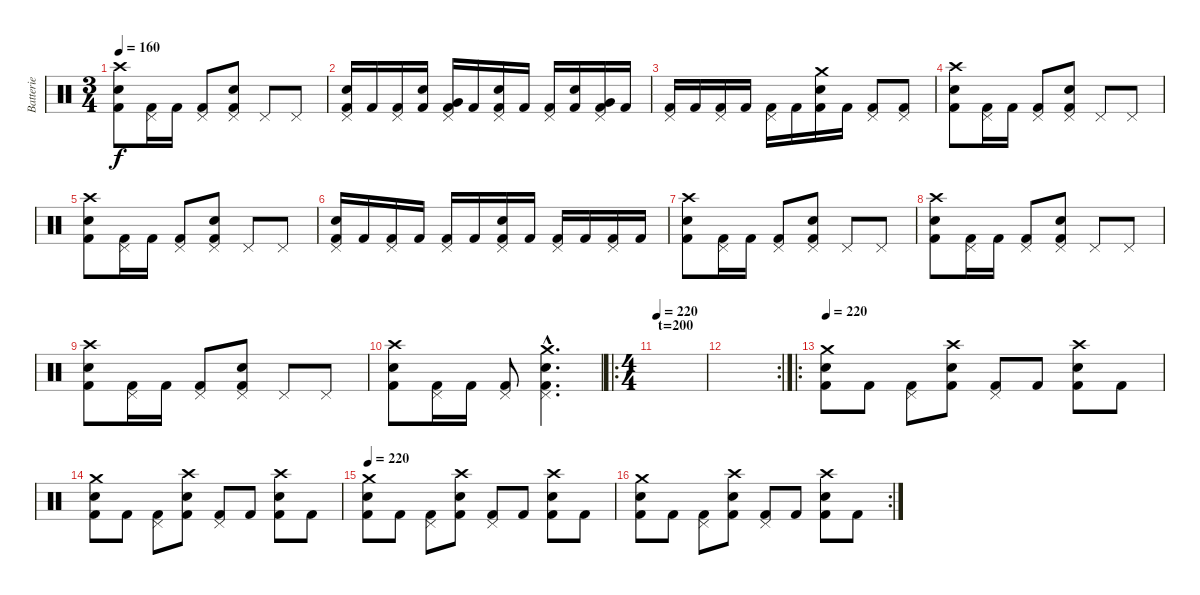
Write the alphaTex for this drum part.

\track ("Batterie" "Batterie") {instrument percussion}
\staff {score}
\articulation defaults
\ts (3 4)
\tempo 160
\clef neutral
\ks c
("Crash high (hit)" "Electric Snare (hit)" "Kick (hit) 2").8{dy f} ("Pedal Hi-Hat (hit)" "Kick (hit) 2").16 "Kick (hit) 2".16 ("Pedal Hi-Hat (hit)" "Kick (hit) 2").8 ("Pedal Hi-Hat (hit)" "Kick (hit) 2" "Electric Snare (hit)").8 "Pedal Hi-Hat (hit)".8 "Pedal Hi-Hat (hit)".8 |
("Pedal Hi-Hat (hit)" "Electric Snare (hit)" "Kick (hit) 2").16 "Kick (hit) 2".16 ("Pedal Hi-Hat (hit)" "Kick (hit) 2").16 ("Electric Snare (hit)" "Kick (hit) 2").16 ("Pedal Hi-Hat (hit)" "Very Low Tom (hit)" "Kick (hit) 2").16 "Kick (hit) 2".16 ("Pedal Hi-Hat (hit)" "Electric Snare (hit)" "Kick (hit) 2").16 "Kick (hit) 2".16 ("Pedal Hi-Hat (hit)" "Kick (hit) 2").16 ("Electric Snare (hit)" "Kick (hit) 2").16 ("Pedal Hi-Hat (hit)" "Very Low Tom (hit)" "Kick (hit) 2").16 "Kick (hit) 2".16 |
("Pedal Hi-Hat (hit)" "Kick (hit) 2").16 "Kick (hit) 2".16 ("Pedal Hi-Hat (hit)" "Kick (hit) 2").16 "Kick (hit) 2".16 ("Pedal Hi-Hat (hit)" "Kick (hit) 2").16 "Kick (hit) 2".16 ("Crash medium (hit)" "Electric Snare (hit)" "Kick (hit) 2").16 "Kick (hit) 2".16 ("Pedal Hi-Hat (hit)" "Kick (hit) 2").8 ("Pedal Hi-Hat (hit)" "Kick (hit) 2").8 |
("Crash high (hit)" "Electric Snare (hit)" "Kick (hit) 2").8 ("Pedal Hi-Hat (hit)" "Kick (hit) 2").16 "Kick (hit) 2".16 ("Pedal Hi-Hat (hit)" "Kick (hit) 2").8 ("Pedal Hi-Hat (hit)" "Kick (hit) 2" "Electric Snare (hit)").8 "Pedal Hi-Hat (hit)".8 "Pedal Hi-Hat (hit)".8 |
("Crash high (hit)" "Electric Snare (hit)" "Kick (hit) 2").8 ("Pedal Hi-Hat (hit)" "Kick (hit) 2").16 "Kick (hit) 2".16 ("Pedal Hi-Hat (hit)" "Kick (hit) 2").8 ("Pedal Hi-Hat (hit)" "Kick (hit) 2" "Electric Snare (hit)").8 "Pedal Hi-Hat (hit)".8 "Pedal Hi-Hat (hit)".8 |
("Pedal Hi-Hat (hit)" "Electric Snare (hit)" "Kick (hit) 2").16 "Kick (hit) 2".16 ("Pedal Hi-Hat (hit)" "Kick (hit) 2").16 "Kick (hit) 2".16 ("Pedal Hi-Hat (hit)" "Kick (hit) 2").16 "Kick (hit) 2".16 ("Pedal Hi-Hat (hit)" "Electric Snare (hit)" "Kick (hit) 2").16 "Kick (hit) 2".16 ("Pedal Hi-Hat (hit)" "Kick (hit) 2").16 "Kick (hit) 2".16 ("Pedal Hi-Hat (hit)" "Kick (hit) 2").16 "Kick (hit) 2".16 |
("Crash high (hit)" "Electric Snare (hit)" "Kick (hit) 2").8 ("Pedal Hi-Hat (hit)" "Kick (hit) 2").16 "Kick (hit) 2".16 ("Pedal Hi-Hat (hit)" "Kick (hit) 2").8 ("Pedal Hi-Hat (hit)" "Kick (hit) 2" "Electric Snare (hit)").8 "Pedal Hi-Hat (hit)".8 "Pedal Hi-Hat (hit)".8 |
("Crash high (hit)" "Electric Snare (hit)" "Kick (hit) 2").8 ("Pedal Hi-Hat (hit)" "Kick (hit) 2").16 "Kick (hit) 2".16 ("Pedal Hi-Hat (hit)" "Kick (hit) 2").8 ("Pedal Hi-Hat (hit)" "Kick (hit) 2" "Electric Snare (hit)").8 "Pedal Hi-Hat (hit)".8 "Pedal Hi-Hat (hit)".8 |
("Crash high (hit)" "Electric Snare (hit)" "Kick (hit) 2").8 ("Pedal Hi-Hat (hit)" "Kick (hit) 2").16 "Kick (hit) 2".16 ("Pedal Hi-Hat (hit)" "Kick (hit) 2").8 ("Pedal Hi-Hat (hit)" "Kick (hit) 2" "Electric Snare (hit)").8 "Pedal Hi-Hat (hit)".8 "Pedal Hi-Hat (hit)".8 |
("Crash high (hit)" "Electric Snare (hit)" "Kick (hit) 2").8 ("Pedal Hi-Hat (hit)" "Kick (hit) 2").16 "Kick (hit) 2".16 ("Pedal Hi-Hat (hit)" "Kick (hit) 2").8 ("Crash medium (hit)"{hac} "Pedal Hi-Hat (hit)"{hac} "Kick (hit) 2"{hac} "Electric Snare (hit)"{hac}).4{d} |
\ro
\ts (4 4)
\section ("" "t=200")
\tempo 220
|
\rc 2
|
\ro
\tempo 220
("Crash medium (hit)" "Electric Snare (hit)" "Kick (hit) 2").8 "Kick (hit) 2".8 ("Pedal Hi-Hat (hit)" "Kick (hit) 2").8 ("Crash high (hit)" "Electric Snare (hit)" "Kick (hit) 2").8 ("Pedal Hi-Hat (hit)" "Kick (hit) 2").8 "Kick (hit) 2".8 ("Crash high (hit)" "Electric Snare (hit)" "Kick (hit) 2").8 "Kick (hit) 2".8 |
("Crash medium (hit)" "Electric Snare (hit)" "Kick (hit) 2").8 "Kick (hit) 2".8 ("Pedal Hi-Hat (hit)" "Kick (hit) 2").8 ("Crash high (hit)" "Electric Snare (hit)" "Kick (hit) 2").8 ("Pedal Hi-Hat (hit)" "Kick (hit) 2").8 "Kick (hit) 2".8 ("Crash high (hit)" "Electric Snare (hit)" "Kick (hit) 2").8 "Kick (hit) 2".8 |
\tempo 220
("Crash medium (hit)" "Electric Snare (hit)" "Kick (hit) 2").8 "Kick (hit) 2".8 ("Pedal Hi-Hat (hit)" "Kick (hit) 2").8 ("Crash high (hit)" "Electric Snare (hit)" "Kick (hit) 2").8 ("Pedal Hi-Hat (hit)" "Kick (hit) 2").8 "Kick (hit) 2".8 ("Crash high (hit)" "Electric Snare (hit)" "Kick (hit) 2").8 "Kick (hit) 2".8 |
\rc 2
("Crash medium (hit)" "Electric Snare (hit)" "Kick (hit) 2").8 "Kick (hit) 2".8 ("Pedal Hi-Hat (hit)" "Kick (hit) 2").8 ("Crash high (hit)" "Electric Snare (hit)" "Kick (hit) 2").8 ("Pedal Hi-Hat (hit)" "Kick (hit) 2").8 "Kick (hit) 2".8 ("Crash high (hit)" "Electric Snare (hit)" "Kick (hit) 2").8 "Kick (hit) 2".8
